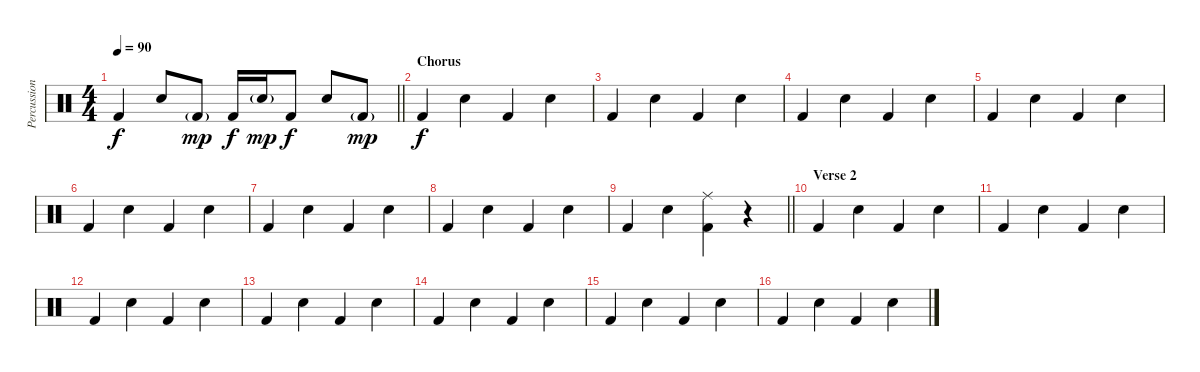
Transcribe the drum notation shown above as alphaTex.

\track ("Percussion" "Percussion") {instrument percussion}
\staff {score}
\articulation defaults
\ts (4 4)
\tempo 90
\clef neutral
\barLineRight lightlight
\ks c "Kick (hit) 2".4{dy f} "Snare (hit) 2".8 "Kick (hit) 2"{g}.8{dy mp} "Kick (hit) 2".16{dy f} "Snare (hit) 2"{g}.16{dy mp} "Kick (hit) 2".8{dy f} "Snare (hit) 2".8 "Kick (hit) 2"{g}.8{dy mp}
|
\section ("" "Chorus")
"Kick (hit) 2".4{dy f} "Snare (hit) 2".4 "Kick (hit) 2".4 "Snare (hit) 2".4 |
"Kick (hit) 2".4 "Snare (hit) 2".4 "Kick (hit) 2".4 "Snare (hit) 2".4 |
"Kick (hit) 2".4 "Snare (hit) 2".4 "Kick (hit) 2".4 "Snare (hit) 2".4 |
"Kick (hit) 2".4 "Snare (hit) 2".4 "Kick (hit) 2".4 "Snare (hit) 2".4 |
"Kick (hit) 2".4 "Snare (hit) 2".4 "Kick (hit) 2".4 "Snare (hit) 2".4 |
"Kick (hit) 2".4 "Snare (hit) 2".4 "Kick (hit) 2".4 "Snare (hit) 2".4 |
"Kick (hit) 2".4 "Snare (hit) 2".4 "Kick (hit) 2".4 "Snare (hit) 2".4 |
\barLineRight lightlight "Kick (hit) 2".4 "Snare (hit) 2".4
("Ride (middle)" "Kick (hit) 2").4 r.4 |
\section ("" "Verse 2")
"Kick (hit) 2".4 "Snare (hit) 2".4 "Kick (hit) 2".4 "Snare (hit) 2".4 |
"Kick (hit) 2".4 "Snare (hit) 2".4 "Kick (hit) 2".4 "Snare (hit) 2".4 |
"Kick (hit) 2".4 "Snare (hit) 2".4 "Kick (hit) 2".4 "Snare (hit) 2".4 |
"Kick (hit) 2".4 "Snare (hit) 2".4 "Kick (hit) 2".4 "Snare (hit) 2".4 |
"Kick (hit) 2".4 "Snare (hit) 2".4 "Kick (hit) 2".4 "Snare (hit) 2".4 |
"Kick (hit) 2".4 "Snare (hit) 2".4 "Kick (hit) 2".4 "Snare (hit) 2".4 |
"Kick (hit) 2".4 "Snare (hit) 2".4 "Kick (hit) 2".4 "Snare (hit) 2".4
